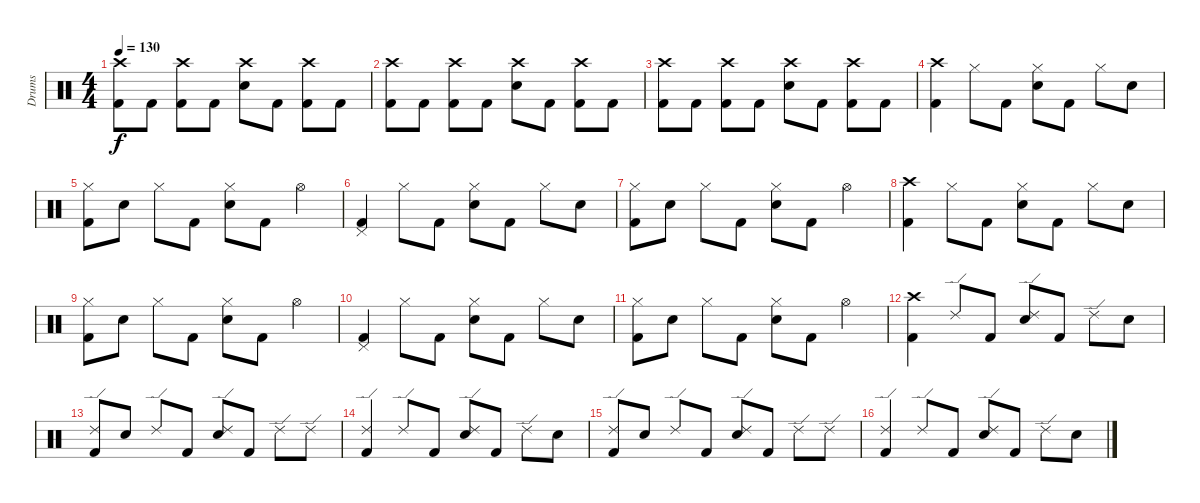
\track ("Drums" "Drums") {instrument percussion}
\staff {score}
\articulation defaults
\ts (4 4)
\tempo 130
\clef neutral
\ks c
("Crash high (hit)" "Kick (hit) 2").8{dy f} "Kick (hit) 2".8 ("Crash high (hit)" "Kick (hit) 2").8 "Kick (hit) 2".8 ("Crash high (hit)" "Snare (hit) 2").8 "Kick (hit) 2".8 ("Crash high (hit)" "Kick (hit) 2").8 "Kick (hit) 2".8 |
("Crash high (hit)" "Kick (hit) 2").8 "Kick (hit) 2".8 ("Crash high (hit)" "Kick (hit) 2").8 "Kick (hit) 2".8 ("Crash high (hit)" "Snare (hit) 2").8 "Kick (hit) 2".8 ("Crash high (hit)" "Kick (hit) 2").8 "Kick (hit) 2".8 |
("Crash high (hit)" "Kick (hit) 2").8 "Kick (hit) 2".8 ("Crash high (hit)" "Kick (hit) 2").8 "Kick (hit) 2".8 ("Crash high (hit)" "Snare (hit) 2").8 "Kick (hit) 2".8 ("Crash high (hit)" "Kick (hit) 2").8 "Kick (hit) 2".8 |
("Crash high (hit)" "Kick (hit) 2").4 "Hi-Hat (closed)".8 "Kick (hit) 2".8 ("Hi-Hat (closed)" "Snare (hit) 2").8 "Kick (hit) 2".8 "Hi-Hat (closed)".8 "Snare (hit) 2".8 |
("Hi-Hat (closed)" "Kick (hit) 2").8 "Snare (hit) 2".8 "Hi-Hat (closed)".8 "Kick (hit) 2".8 ("Hi-Hat (closed)" "Snare (hit) 2").8 "Kick (hit) 2".8 "Hi-Hat (open)".4 |
("Pedal Hi-Hat (hit)" "Kick (hit) 2").4 "Hi-Hat (closed)".8 "Kick (hit) 2".8 ("Hi-Hat (closed)" "Snare (hit) 2").8 "Kick (hit) 2".8 "Hi-Hat (closed)".8 "Snare (hit) 2".8 |
("Hi-Hat (closed)" "Kick (hit) 2").8 "Snare (hit) 2".8 "Hi-Hat (closed)".8 "Kick (hit) 2".8 ("Hi-Hat (closed)" "Snare (hit) 2").8 "Kick (hit) 2".8 "Hi-Hat (open)".4 |
("Crash high (hit)" "Kick (hit) 2").4 "Hi-Hat (closed)".8 "Kick (hit) 2".8 ("Hi-Hat (closed)" "Snare (hit) 2").8 "Kick (hit) 2".8 "Hi-Hat (closed)".8 "Snare (hit) 2".8 |
("Hi-Hat (closed)" "Kick (hit) 2").8 "Snare (hit) 2".8 "Hi-Hat (closed)".8 "Kick (hit) 2".8 ("Hi-Hat (closed)" "Snare (hit) 2").8 "Kick (hit) 2".8 "Hi-Hat (open)".4 |
("Pedal Hi-Hat (hit)" "Kick (hit) 2").4 "Hi-Hat (closed)".8 "Kick (hit) 2".8 ("Hi-Hat (closed)" "Snare (hit) 2").8 "Kick (hit) 2".8 "Hi-Hat (closed)".8 "Snare (hit) 2".8 |
("Hi-Hat (closed)" "Kick (hit) 2").8 "Snare (hit) 2".8 "Hi-Hat (closed)".8 "Kick (hit) 2".8 ("Hi-Hat (closed)" "Snare (hit) 2").8 "Kick (hit) 2".8 "Hi-Hat (open)".4 |
("Crash high (hit)" "Kick (hit) 2").4 "Ride (edge) 2".8 "Kick (hit) 2".8 ("Ride (edge) 2" "Snare (hit) 2").8 "Kick (hit) 2".8 "Ride (edge) 2".8 "Snare (hit) 2".8 |
("Ride (edge) 2" "Kick (hit) 2").8 "Snare (hit) 2".8 "Ride (edge) 2".8 "Kick (hit) 2".8 ("Ride (edge) 2" "Snare (hit) 2").8 "Kick (hit) 2".8 "Ride (edge) 2".8 "Ride (edge) 2".8 |
("Ride (edge) 2" "Kick (hit) 2").4 "Ride (edge) 2".8 "Kick (hit) 2".8 ("Ride (edge) 2" "Snare (hit) 2").8 "Kick (hit) 2".8 "Ride (edge) 2".8 "Snare (hit) 2".8 |
("Ride (edge) 2" "Kick (hit) 2").8 "Snare (hit) 2".8 "Ride (edge) 2".8 "Kick (hit) 2".8 ("Ride (edge) 2" "Snare (hit) 2").8 "Kick (hit) 2".8 "Ride (edge) 2".8 "Ride (edge) 2".8 |
("Ride (edge) 2" "Kick (hit) 2").4 "Ride (edge) 2".8 "Kick (hit) 2".8 ("Ride (edge) 2" "Snare (hit) 2").8 "Kick (hit) 2".8 "Ride (edge) 2".8 "Snare (hit) 2".8
